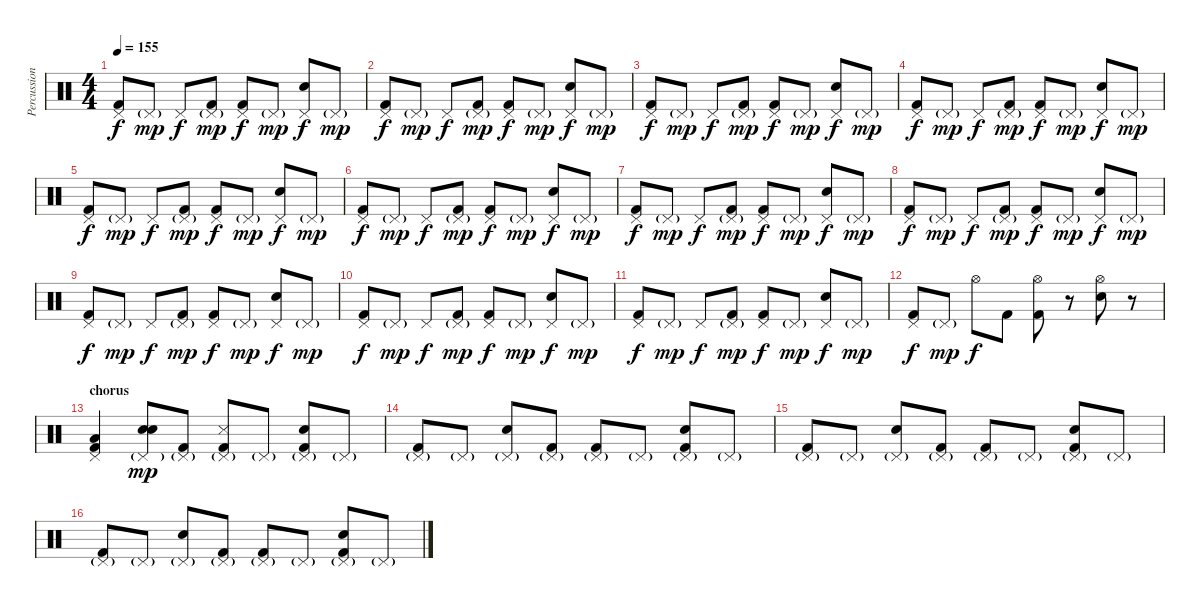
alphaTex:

\track ("Percussions" "Percussion") {instrument percussion}
\staff {score}
\articulation defaults
\ts (4 4)
\tempo 155
\clef neutral
\ks c
("Pedal Hi-Hat (hit)" "Kick (hit) 2").8{dy f} "Pedal Hi-Hat (hit)"{g}.8{dy mp} "Pedal Hi-Hat (hit)".8{dy f} ("Pedal Hi-Hat (hit)"{g} "Kick (hit) 2").8{dy mp} ("Pedal Hi-Hat (hit)" "Kick (hit) 2").8{dy f} "Pedal Hi-Hat (hit)"{g}.8{dy mp} ("Pedal Hi-Hat (hit)" "Snare (hit) 2").8{dy f} "Pedal Hi-Hat (hit)"{g}.8{dy mp} |
("Pedal Hi-Hat (hit)" "Kick (hit) 2").8{dy f} "Pedal Hi-Hat (hit)"{g}.8{dy mp} "Pedal Hi-Hat (hit)".8{dy f} ("Pedal Hi-Hat (hit)"{g} "Kick (hit) 2").8{dy mp} ("Pedal Hi-Hat (hit)" "Kick (hit) 2").8{dy f} "Pedal Hi-Hat (hit)"{g}.8{dy mp} ("Pedal Hi-Hat (hit)" "Snare (hit) 2").8{dy f} "Pedal Hi-Hat (hit)"{g}.8{dy mp} |
("Pedal Hi-Hat (hit)" "Kick (hit) 2").8{dy f} "Pedal Hi-Hat (hit)"{g}.8{dy mp} "Pedal Hi-Hat (hit)".8{dy f} ("Pedal Hi-Hat (hit)"{g} "Kick (hit) 2").8{dy mp} ("Pedal Hi-Hat (hit)" "Kick (hit) 2").8{dy f} "Pedal Hi-Hat (hit)"{g}.8{dy mp} ("Pedal Hi-Hat (hit)" "Snare (hit) 2").8{dy f} "Pedal Hi-Hat (hit)"{g}.8{dy mp} |
("Pedal Hi-Hat (hit)" "Kick (hit) 2").8{dy f} "Pedal Hi-Hat (hit)"{g}.8{dy mp} "Pedal Hi-Hat (hit)".8{dy f} ("Pedal Hi-Hat (hit)"{g} "Kick (hit) 2").8{dy mp} ("Pedal Hi-Hat (hit)" "Kick (hit) 2").8{dy f} "Pedal Hi-Hat (hit)"{g}.8{dy mp} ("Pedal Hi-Hat (hit)" "Snare (hit) 2").8{dy f} "Pedal Hi-Hat (hit)"{g}.8{dy mp} |
("Pedal Hi-Hat (hit)" "Kick (hit) 2").8{dy f} "Pedal Hi-Hat (hit)"{g}.8{dy mp} "Pedal Hi-Hat (hit)".8{dy f} ("Pedal Hi-Hat (hit)"{g} "Kick (hit) 2").8{dy mp} ("Pedal Hi-Hat (hit)" "Kick (hit) 2").8{dy f} "Pedal Hi-Hat (hit)"{g}.8{dy mp} ("Pedal Hi-Hat (hit)" "Snare (hit) 2").8{dy f} "Pedal Hi-Hat (hit)"{g}.8{dy mp} |
("Pedal Hi-Hat (hit)" "Kick (hit) 2").8{dy f} "Pedal Hi-Hat (hit)"{g}.8{dy mp} "Pedal Hi-Hat (hit)".8{dy f} ("Pedal Hi-Hat (hit)"{g} "Kick (hit) 2").8{dy mp} ("Pedal Hi-Hat (hit)" "Kick (hit) 2").8{dy f} "Pedal Hi-Hat (hit)"{g}.8{dy mp} ("Pedal Hi-Hat (hit)" "Snare (hit) 2").8{dy f} "Pedal Hi-Hat (hit)"{g}.8{dy mp} |
("Pedal Hi-Hat (hit)" "Kick (hit) 2").8{dy f} "Pedal Hi-Hat (hit)"{g}.8{dy mp} "Pedal Hi-Hat (hit)".8{dy f} ("Pedal Hi-Hat (hit)"{g} "Kick (hit) 2").8{dy mp} ("Pedal Hi-Hat (hit)" "Kick (hit) 2").8{dy f} "Pedal Hi-Hat (hit)"{g}.8{dy mp} ("Pedal Hi-Hat (hit)" "Snare (hit) 2").8{dy f} "Pedal Hi-Hat (hit)"{g}.8{dy mp} |
("Pedal Hi-Hat (hit)" "Kick (hit) 2").8{dy f} "Pedal Hi-Hat (hit)"{g}.8{dy mp} "Pedal Hi-Hat (hit)".8{dy f} ("Pedal Hi-Hat (hit)"{g} "Kick (hit) 2").8{dy mp} ("Pedal Hi-Hat (hit)" "Kick (hit) 2").8{dy f} "Pedal Hi-Hat (hit)"{g}.8{dy mp} ("Pedal Hi-Hat (hit)" "Snare (hit) 2").8{dy f} "Pedal Hi-Hat (hit)"{g}.8{dy mp} |
("Pedal Hi-Hat (hit)" "Kick (hit) 2").8{dy f} "Pedal Hi-Hat (hit)"{g}.8{dy mp} "Pedal Hi-Hat (hit)".8{dy f} ("Pedal Hi-Hat (hit)"{g} "Kick (hit) 2").8{dy mp} ("Pedal Hi-Hat (hit)" "Kick (hit) 2").8{dy f} "Pedal Hi-Hat (hit)"{g}.8{dy mp} ("Pedal Hi-Hat (hit)" "Snare (hit) 2").8{dy f} "Pedal Hi-Hat (hit)"{g}.8{dy mp} |
("Pedal Hi-Hat (hit)" "Kick (hit) 2").8{dy f} "Pedal Hi-Hat (hit)"{g}.8{dy mp} "Pedal Hi-Hat (hit)".8{dy f} ("Pedal Hi-Hat (hit)"{g} "Kick (hit) 2").8{dy mp} ("Pedal Hi-Hat (hit)" "Kick (hit) 2").8{dy f} "Pedal Hi-Hat (hit)"{g}.8{dy mp} ("Pedal Hi-Hat (hit)" "Snare (hit) 2").8{dy f} "Pedal Hi-Hat (hit)"{g}.8{dy mp} |
("Pedal Hi-Hat (hit)" "Kick (hit) 2").8{dy f} "Pedal Hi-Hat (hit)"{g}.8{dy mp} "Pedal Hi-Hat (hit)".8{dy f} ("Pedal Hi-Hat (hit)"{g} "Kick (hit) 2").8{dy mp} ("Pedal Hi-Hat (hit)" "Kick (hit) 2").8{dy f} "Pedal Hi-Hat (hit)"{g}.8{dy mp} ("Pedal Hi-Hat (hit)" "Snare (hit) 2").8{dy f} "Pedal Hi-Hat (hit)"{g}.8{dy mp} |
("Pedal Hi-Hat (hit)" "Kick (hit) 2").8{dy f} "Pedal Hi-Hat (hit)"{g}.8{dy mp} "Hi-Hat (open)".8{dy f} "Kick (hit) 2".8 ("Hi-Hat (open)" "Kick (hit) 2").8 r.8 ("Hi-Hat (open)" "Snare (hit) 2").8 r.8 |
\section ("" "chorus")
("Pedal Hi-Hat (hit)" "Low Floor Tom (hit)" "Kick (hit) 2").4 ("Pedal Hi-Hat (hit)"{g} "Snare (hit) 2" "Snare (hit) 2").8{dy mp} ("Pedal Hi-Hat (hit)"{g} "Kick (hit) 2").8 ("Pedal Hi-Hat (hit)"{g} "Metronome (hit)" "Kick (hit) 2").8 "Pedal Hi-Hat (hit)"{g}.8 ("Pedal Hi-Hat (hit)"{g} "Snare (hit) 2" "Kick (hit) 2").8 "Pedal Hi-Hat (hit)"{g}.8 |
("Pedal Hi-Hat (hit)"{g} "Kick (hit) 2").8 "Pedal Hi-Hat (hit)"{g}.8 ("Pedal Hi-Hat (hit)"{g} "Snare (hit) 2").8 ("Pedal Hi-Hat (hit)"{g} "Kick (hit) 2").8 ("Pedal Hi-Hat (hit)"{g} "Kick (hit) 2").8 "Pedal Hi-Hat (hit)"{g}.8 ("Pedal Hi-Hat (hit)"{g} "Snare (hit) 2" "Kick (hit) 2").8 "Pedal Hi-Hat (hit)"{g}.8 |
("Pedal Hi-Hat (hit)"{g} "Kick (hit) 2").8 "Pedal Hi-Hat (hit)"{g}.8 ("Pedal Hi-Hat (hit)"{g} "Snare (hit) 2").8 ("Pedal Hi-Hat (hit)"{g} "Kick (hit) 2").8 ("Pedal Hi-Hat (hit)"{g} "Kick (hit) 2").8 "Pedal Hi-Hat (hit)"{g}.8 ("Pedal Hi-Hat (hit)"{g} "Snare (hit) 2" "Kick (hit) 2").8 "Pedal Hi-Hat (hit)"{g}.8 |
("Pedal Hi-Hat (hit)"{g} "Kick (hit) 2").8 "Pedal Hi-Hat (hit)"{g}.8 ("Pedal Hi-Hat (hit)"{g} "Snare (hit) 2").8 ("Pedal Hi-Hat (hit)"{g} "Kick (hit) 2").8 ("Pedal Hi-Hat (hit)"{g} "Kick (hit) 2").8 "Pedal Hi-Hat (hit)"{g}.8 ("Pedal Hi-Hat (hit)"{g} "Snare (hit) 2" "Kick (hit) 2").8 "Pedal Hi-Hat (hit)"{g}.8
